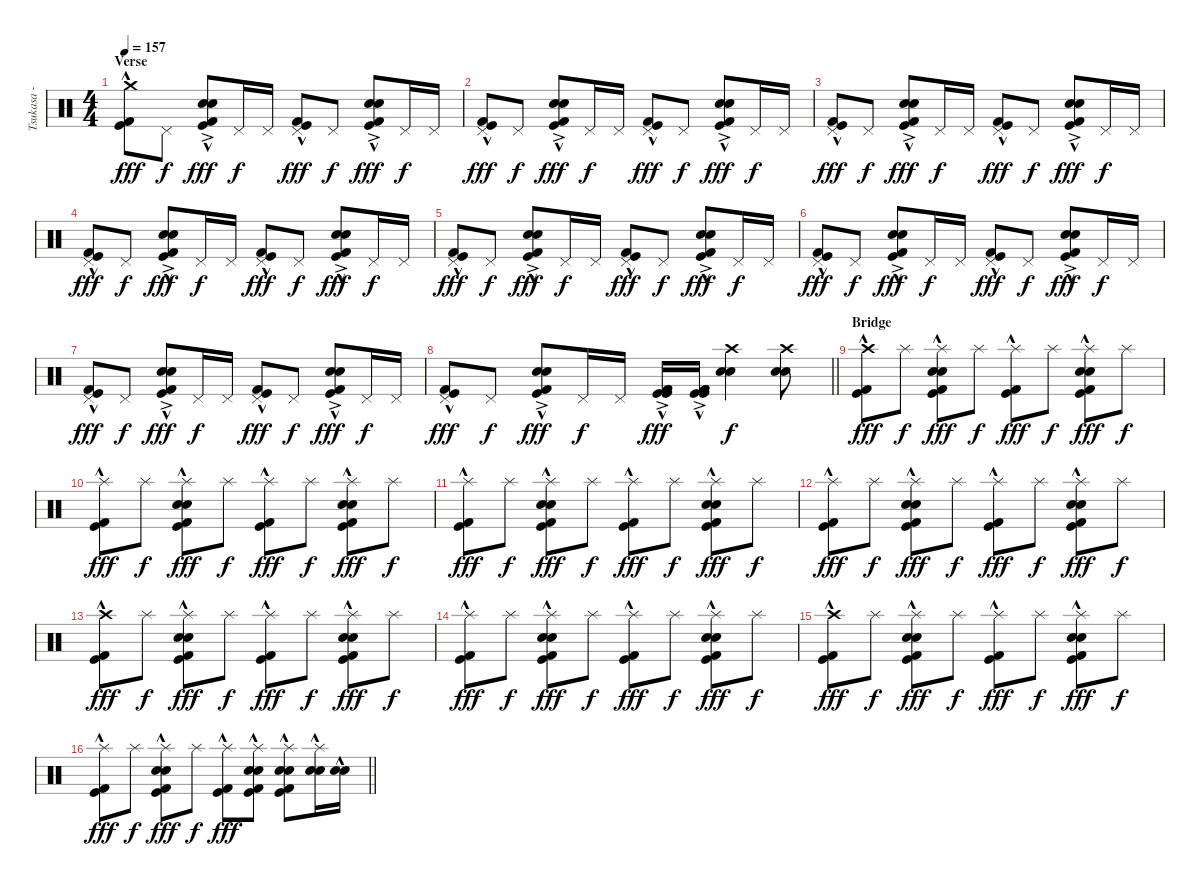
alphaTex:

\track ("Tsukasa - Drums" "Tsukasa - ") {instrument percussion}
\staff {score}
\articulation defaults
\ts (4 4)
\section ("" "Verse")
\tempo 157
\clef neutral
\ks c
("Crash medium (hit)" "Kick (hit)"{hac} "Kick (hit) 2"{hac}).8{dy fff} "Pedal Hi-Hat (hit)".8{dy f} ("Electric Snare (hit)"{ac} "Snare (hit) 2"{ac} "Kick (hit)"{hac} "Kick (hit) 2"{hac}).8{dy fff} "Pedal Hi-Hat (hit)".16{dy f} "Pedal Hi-Hat (hit)".16 ("Pedal Hi-Hat (hit)" "Kick (hit)"{hac} "Kick (hit) 2"{hac}).8{dy fff} "Pedal Hi-Hat (hit)".8{dy f} ("Electric Snare (hit)"{ac} "Snare (hit) 2"{ac} "Kick (hit)"{hac} "Kick (hit) 2"{hac}).8{dy fff} "Pedal Hi-Hat (hit)".16{dy f} "Pedal Hi-Hat (hit)".16 |
("Pedal Hi-Hat (hit)" "Kick (hit)"{hac} "Kick (hit) 2"{hac}).8{dy fff} "Pedal Hi-Hat (hit)".8{dy f} ("Electric Snare (hit)"{ac} "Snare (hit) 2"{ac} "Kick (hit)"{hac} "Kick (hit) 2"{hac}).8{dy fff} "Pedal Hi-Hat (hit)".16{dy f} "Pedal Hi-Hat (hit)".16 ("Pedal Hi-Hat (hit)" "Kick (hit)"{hac} "Kick (hit) 2"{hac}).8{dy fff} "Pedal Hi-Hat (hit)".8{dy f} ("Electric Snare (hit)"{ac} "Snare (hit) 2"{ac} "Kick (hit)"{hac} "Kick (hit) 2"{hac}).8{dy fff} "Pedal Hi-Hat (hit)".16{dy f} "Pedal Hi-Hat (hit)".16 |
("Pedal Hi-Hat (hit)" "Kick (hit)"{hac} "Kick (hit) 2"{hac}).8{dy fff} "Pedal Hi-Hat (hit)".8{dy f} ("Electric Snare (hit)"{ac} "Snare (hit) 2"{ac} "Kick (hit)"{hac} "Kick (hit) 2"{hac}).8{dy fff} "Pedal Hi-Hat (hit)".16{dy f} "Pedal Hi-Hat (hit)".16 ("Pedal Hi-Hat (hit)" "Kick (hit)"{hac} "Kick (hit) 2"{hac}).8{dy fff} "Pedal Hi-Hat (hit)".8{dy f} ("Electric Snare (hit)"{ac} "Snare (hit) 2"{ac} "Kick (hit)"{hac} "Kick (hit) 2"{hac}).8{dy fff} "Pedal Hi-Hat (hit)".16{dy f} "Pedal Hi-Hat (hit)".16 |
("Pedal Hi-Hat (hit)" "Kick (hit)"{hac} "Kick (hit) 2"{hac}).8{dy fff} "Pedal Hi-Hat (hit)".8{dy f} ("Electric Snare (hit)"{ac} "Snare (hit) 2"{ac} "Kick (hit)"{hac} "Kick (hit) 2"{hac}).8{dy fff} "Pedal Hi-Hat (hit)".16{dy f} "Pedal Hi-Hat (hit)".16 ("Pedal Hi-Hat (hit)" "Kick (hit)"{hac} "Kick (hit) 2"{hac}).8{dy fff} "Pedal Hi-Hat (hit)".8{dy f} ("Electric Snare (hit)"{ac} "Snare (hit) 2"{ac} "Kick (hit)"{hac} "Kick (hit) 2"{hac}).8{dy fff} "Pedal Hi-Hat (hit)".16{dy f} "Pedal Hi-Hat (hit)".16 |
("Pedal Hi-Hat (hit)" "Kick (hit)"{hac} "Kick (hit) 2"{hac}).8{dy fff} "Pedal Hi-Hat (hit)".8{dy f} ("Electric Snare (hit)"{ac} "Snare (hit) 2"{ac} "Kick (hit)"{hac} "Kick (hit) 2"{hac}).8{dy fff} "Pedal Hi-Hat (hit)".16{dy f} "Pedal Hi-Hat (hit)".16 ("Pedal Hi-Hat (hit)" "Kick (hit)"{hac} "Kick (hit) 2"{hac}).8{dy fff} "Pedal Hi-Hat (hit)".8{dy f} ("Electric Snare (hit)"{ac} "Snare (hit) 2"{ac} "Kick (hit)"{hac} "Kick (hit) 2"{hac}).8{dy fff} "Pedal Hi-Hat (hit)".16{dy f} "Pedal Hi-Hat (hit)".16 |
("Pedal Hi-Hat (hit)" "Kick (hit)"{hac} "Kick (hit) 2"{hac}).8{dy fff} "Pedal Hi-Hat (hit)".8{dy f} ("Electric Snare (hit)"{ac} "Snare (hit) 2"{ac} "Kick (hit)"{hac} "Kick (hit) 2"{hac}).8{dy fff} "Pedal Hi-Hat (hit)".16{dy f} "Pedal Hi-Hat (hit)".16 ("Pedal Hi-Hat (hit)" "Kick (hit)"{hac} "Kick (hit) 2"{hac}).8{dy fff} "Pedal Hi-Hat (hit)".8{dy f} ("Electric Snare (hit)"{ac} "Snare (hit) 2"{ac} "Kick (hit)"{hac} "Kick (hit) 2"{hac}).8{dy fff} "Pedal Hi-Hat (hit)".16{dy f} "Pedal Hi-Hat (hit)".16 |
("Pedal Hi-Hat (hit)" "Kick (hit)"{hac} "Kick (hit) 2"{hac}).8{dy fff} "Pedal Hi-Hat (hit)".8{dy f} ("Electric Snare (hit)"{ac} "Snare (hit) 2"{ac} "Kick (hit)"{hac} "Kick (hit) 2"{hac}).8{dy fff} "Pedal Hi-Hat (hit)".16{dy f} "Pedal Hi-Hat (hit)".16 ("Pedal Hi-Hat (hit)" "Kick (hit)"{hac} "Kick (hit) 2"{hac}).8{dy fff} "Pedal Hi-Hat (hit)".8{dy f} ("Electric Snare (hit)"{ac} "Snare (hit) 2"{ac} "Kick (hit)"{hac} "Kick (hit) 2"{hac}).8{dy fff} "Pedal Hi-Hat (hit)".16{dy f} "Pedal Hi-Hat (hit)".16 |
\barLineRight lightlight
("Pedal Hi-Hat (hit)" "Kick (hit)"{hac} "Kick (hit) 2"{hac}).8{dy fff} "Pedal Hi-Hat (hit)".8{dy f} ("Electric Snare (hit)"{ac} "Snare (hit) 2"{ac} "Kick (hit)"{hac} "Kick (hit) 2"{hac}).8{dy fff} "Pedal Hi-Hat (hit)".16{dy f} "Pedal Hi-Hat (hit)".16 ("Kick (hit)"{ac} "Kick (hit) 2"{ac} "Kick (hit)"{hac} "Kick (hit) 2"{hac}).16{dy fff} ("Kick (hit)"{ac} "Kick (hit) 2"{ac} "Kick (hit)"{hac} "Kick (hit) 2"{hac}).16 ("Crash high (hit)" "Electric Snare (hit)" "Snare (hit) 2").4{dy f} ("Crash high (hit)" "Electric Snare (hit)" "Snare (hit) 2").8 |
\section ("" "Bridge")
("Crash high (hit)" "Kick (hit)"{hac} "Kick (hit) 2"{hac}).8{dy fff} "Splash (hit)".8{dy f} ("Splash (hit)"{hac} "Electric Snare (hit)"{hac} "Snare (hit) 2" "Kick (hit)"{hac} "Kick (hit) 2"{hac}).8{dy fff} "Splash (hit)".8{dy f} ("Splash (hit)"{hac} "Kick (hit)"{hac} "Kick (hit) 2"{hac}).8{dy fff} "Splash (hit)".8{dy f} ("Splash (hit)"{hac} "Electric Snare (hit)"{hac} "Snare (hit) 2" "Kick (hit)"{hac} "Kick (hit) 2"{hac}).8{dy fff} "Splash (hit)".8{dy f} |
("Splash (hit)"{hac} "Kick (hit)"{hac} "Kick (hit) 2"{hac}).8{dy fff} "Splash (hit)".8{dy f} ("Splash (hit)"{hac} "Electric Snare (hit)"{hac} "Snare (hit) 2" "Kick (hit)"{hac} "Kick (hit) 2"{hac}).8{dy fff} "Splash (hit)".8{dy f} ("Splash (hit)"{hac} "Kick (hit)"{hac} "Kick (hit) 2"{hac}).8{dy fff} "Splash (hit)".8{dy f} ("Splash (hit)"{hac} "Electric Snare (hit)"{hac} "Snare (hit) 2" "Kick (hit)"{hac} "Kick (hit) 2"{hac}).8{dy fff} "Splash (hit)".8{dy f} |
("Splash (hit)"{hac} "Kick (hit)"{hac} "Kick (hit) 2"{hac}).8{dy fff} "Splash (hit)".8{dy f} ("Splash (hit)"{hac} "Electric Snare (hit)"{hac} "Snare (hit) 2" "Kick (hit)"{hac} "Kick (hit) 2"{hac}).8{dy fff} "Splash (hit)".8{dy f} ("Splash (hit)"{hac} "Kick (hit)"{hac} "Kick (hit) 2"{hac}).8{dy fff} "Splash (hit)".8{dy f} ("Splash (hit)"{hac} "Electric Snare (hit)"{hac} "Snare (hit) 2" "Kick (hit)"{hac} "Kick (hit) 2"{hac}).8{dy fff} "Splash (hit)".8{dy f} |
("Splash (hit)"{hac} "Kick (hit)"{hac} "Kick (hit) 2"{hac}).8{dy fff} "Splash (hit)".8{dy f} ("Splash (hit)"{hac} "Electric Snare (hit)"{hac} "Snare (hit) 2" "Kick (hit)"{hac} "Kick (hit) 2"{hac}).8{dy fff} "Splash (hit)".8{dy f} ("Splash (hit)"{hac} "Kick (hit)"{hac} "Kick (hit) 2"{hac}).8{dy fff} "Splash (hit)".8{dy f} ("Splash (hit)"{hac} "Electric Snare (hit)"{hac} "Snare (hit) 2" "Kick (hit)"{hac} "Kick (hit) 2"{hac}).8{dy fff} "Splash (hit)".8{dy f} |
("Crash high (hit)" "Kick (hit)"{hac} "Kick (hit) 2"{hac}).8{dy fff} "Splash (hit)".8{dy f} ("Splash (hit)"{hac} "Electric Snare (hit)"{hac} "Snare (hit) 2" "Kick (hit)"{hac} "Kick (hit) 2"{hac}).8{dy fff} "Splash (hit)".8{dy f} ("Splash (hit)"{hac} "Kick (hit)"{hac} "Kick (hit) 2"{hac}).8{dy fff} "Splash (hit)".8{dy f} ("Splash (hit)"{hac} "Electric Snare (hit)"{hac} "Snare (hit) 2" "Kick (hit)"{hac} "Kick (hit) 2"{hac}).8{dy fff} "Splash (hit)".8{dy f} |
("Splash (hit)"{hac} "Kick (hit)"{hac} "Kick (hit) 2"{hac}).8{dy fff} "Splash (hit)".8{dy f} ("Splash (hit)"{hac} "Electric Snare (hit)"{hac} "Snare (hit) 2" "Kick (hit)"{hac} "Kick (hit) 2"{hac}).8{dy fff} "Splash (hit)".8{dy f} ("Splash (hit)"{hac} "Kick (hit)"{hac} "Kick (hit) 2"{hac}).8{dy fff} "Splash (hit)".8{dy f} ("Splash (hit)"{hac} "Electric Snare (hit)"{hac} "Snare (hit) 2" "Kick (hit)"{hac} "Kick (hit) 2"{hac}).8{dy fff} "Splash (hit)".8{dy f} |
("Crash high (hit)" "Kick (hit)"{hac} "Kick (hit) 2"{hac}).8{dy fff} "Splash (hit)".8{dy f} ("Splash (hit)"{hac} "Electric Snare (hit)"{hac} "Snare (hit) 2" "Kick (hit)"{hac} "Kick (hit) 2"{hac}).8{dy fff} "Splash (hit)".8{dy f} ("Splash (hit)"{hac} "Kick (hit)"{hac} "Kick (hit) 2"{hac}).8{dy fff} "Splash (hit)".8{dy f} ("Splash (hit)"{hac} "Electric Snare (hit)"{hac} "Snare (hit) 2" "Kick (hit)"{hac} "Kick (hit) 2"{hac}).8{dy fff} "Splash (hit)".8{dy f} |
\barLineRight lightlight
("Splash (hit)"{hac} "Kick (hit)"{hac} "Kick (hit) 2"{hac}).8{dy fff} "Splash (hit)".8{dy f} ("Splash (hit)"{hac} "Electric Snare (hit)"{hac} "Snare (hit) 2" "Kick (hit)"{hac} "Kick (hit) 2"{hac}).8{dy fff} "Splash (hit)".8{dy f} ("Splash (hit)"{hac} "Kick (hit)"{hac} "Kick (hit) 2"{hac}).8{dy fff} ("Splash (hit)" "Electric Snare (hit)"{hac} "Snare (hit) 2"{hac} "Kick (hit)"{hac} "Kick (hit) 2"{hac}).8 ("Splash (hit)"{hac} "Electric Snare (hit)"{hac} "Snare (hit) 2"{hac} "Kick (hit)"{hac} "Kick (hit) 2"{hac}).8 ("Splash (hit)" "Electric Snare (hit)"{hac} "Snare (hit) 2"{hac}).16 ("Electric Snare (hit)"{hac} "Snare (hit) 2"{hac}).16
